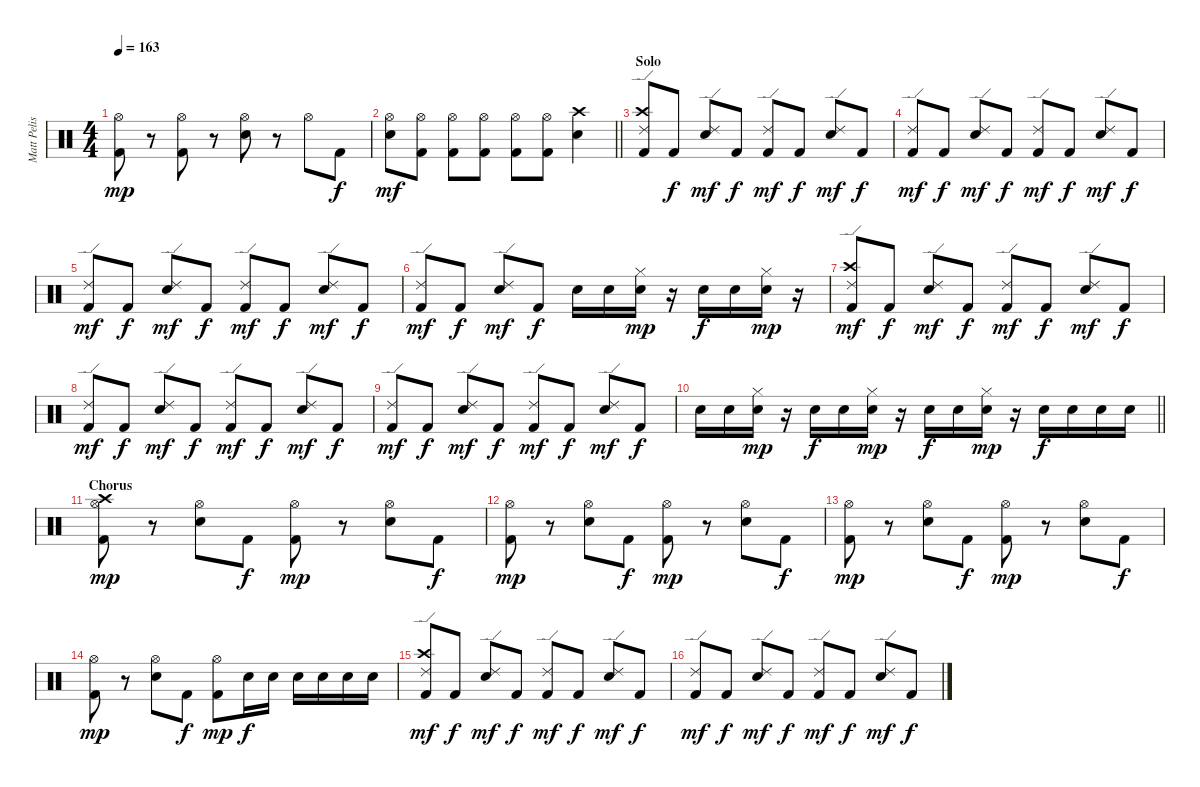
\track ("Matt Pelissier (Drums)" "Matt Pelis") {instrument percussion}
\staff {score}
\articulation defaults
\ts (4 4)
\tempo 163
\clef neutral
\ks c
("Hi-Hat (open)" "Kick (hit) 2").8{dy mp} r.8 ("Hi-Hat (open)" "Kick (hit) 2").8 r.8 ("Hi-Hat (open)" "Electric Snare (hit)").8 r.8 "Hi-Hat (open)".8 "Kick (hit) 2".8{dy f} |
\barLineRight lightlight
("Hi-Hat (open)" "Electric Snare (hit)").8{dy mf} ("Hi-Hat (open)" "Kick (hit) 2").8 ("Hi-Hat (open)" "Kick (hit) 2").8 ("Hi-Hat (open)" "Kick (hit) 2").8 ("Hi-Hat (open)" "Kick (hit) 2").8 ("Hi-Hat (open)" "Kick (hit) 2").8 ("Crash high (hit)" "Electric Snare (hit)").4 |
\section ("" "Solo")
("Crash high (hit)" "Ride (edge) 2" "Kick (hit) 2").8 "Kick (hit) 2".8{dy f} ("Ride (edge) 2" "Electric Snare (hit)").8{dy mf} "Kick (hit) 2".8{dy f} ("Ride (edge) 2" "Kick (hit) 2").8{dy mf} "Kick (hit) 2".8{dy f} ("Ride (edge) 2" "Electric Snare (hit)").8{dy mf} "Kick (hit) 2".8{dy f} |
("Ride (edge) 2" "Kick (hit) 2").8{dy mf} "Kick (hit) 2".8{dy f} ("Ride (edge) 2" "Electric Snare (hit)").8{dy mf} "Kick (hit) 2".8{dy f} ("Ride (edge) 2" "Kick (hit) 2").8{dy mf} "Kick (hit) 2".8{dy f} ("Ride (edge) 2" "Electric Snare (hit)").8{dy mf} "Kick (hit) 2".8{dy f} |
("Ride (edge) 2" "Kick (hit) 2").8{dy mf} "Kick (hit) 2".8{dy f} ("Ride (edge) 2" "Electric Snare (hit)").8{dy mf} "Kick (hit) 2".8{dy f} ("Ride (edge) 2" "Kick (hit) 2").8{dy mf} "Kick (hit) 2".8{dy f} ("Ride (edge) 2" "Electric Snare (hit)").8{dy mf} "Kick (hit) 2".8{dy f} |
("Ride (edge) 2" "Kick (hit) 2").8{dy mf} "Kick (hit) 2".8{dy f} ("Ride (edge) 2" "Electric Snare (hit)").8{dy mf} "Kick (hit) 2".8{dy f} "Electric Snare (hit)".16 "Electric Snare (hit)".16 ("Hi-Hat (closed)" "Electric Snare (hit)").16{dy mp} r.16 "Electric Snare (hit)".16{dy f} "Electric Snare (hit)".16 ("Hi-Hat (closed)" "Electric Snare (hit)").16{dy mp} r.16 |
("Crash high (hit)" "Ride (edge) 2" "Kick (hit) 2").8{dy mf} "Kick (hit) 2".8{dy f} ("Ride (edge) 2" "Electric Snare (hit)").8{dy mf} "Kick (hit) 2".8{dy f} ("Ride (edge) 2" "Kick (hit) 2").8{dy mf} "Kick (hit) 2".8{dy f} ("Ride (edge) 2" "Electric Snare (hit)").8{dy mf} "Kick (hit) 2".8{dy f} |
("Ride (edge) 2" "Kick (hit) 2").8{dy mf} "Kick (hit) 2".8{dy f} ("Ride (edge) 2" "Electric Snare (hit)").8{dy mf} "Kick (hit) 2".8{dy f} ("Ride (edge) 2" "Kick (hit) 2").8{dy mf} "Kick (hit) 2".8{dy f} ("Ride (edge) 2" "Electric Snare (hit)").8{dy mf} "Kick (hit) 2".8{dy f} |
("Ride (edge) 2" "Kick (hit) 2").8{dy mf} "Kick (hit) 2".8{dy f} ("Ride (edge) 2" "Electric Snare (hit)").8{dy mf} "Kick (hit) 2".8{dy f} ("Ride (edge) 2" "Kick (hit) 2").8{dy mf} "Kick (hit) 2".8{dy f} ("Ride (edge) 2" "Electric Snare (hit)").8{dy mf} "Kick (hit) 2".8{dy f} |
\barLineRight lightlight "Electric Snare (hit)".16 "Electric Snare (hit)".16
("Hi-Hat (closed)" "Electric Snare (hit)").16{dy mp} r.16 "Electric Snare (hit)".16{dy f} "Electric Snare (hit)".16 ("Hi-Hat (closed)" "Electric Snare (hit)").16{dy mp} r.16 "Electric Snare (hit)".16{dy f} "Electric Snare (hit)".16 ("Hi-Hat (closed)" "Electric Snare (hit)").16{dy mp} r.16 "Electric Snare (hit)".16{dy f} "Electric Snare (hit)".16 "Electric Snare (hit)".16 "Electric Snare (hit)".16 |
\section ("" "Chorus")
("Crash high (hit)" "Hi-Hat (open)" "Kick (hit) 2").8{dy mp} r.8 ("Hi-Hat (open)" "Electric Snare (hit)").8 "Kick (hit) 2".8{dy f} ("Hi-Hat (open)" "Kick (hit) 2").8{dy mp} r.8 ("Hi-Hat (open)" "Electric Snare (hit)").8 "Kick (hit) 2".8{dy f} |
("Hi-Hat (open)" "Kick (hit) 2").8{dy mp} r.8 ("Hi-Hat (open)" "Electric Snare (hit)").8 "Kick (hit) 2".8{dy f} ("Hi-Hat (open)" "Kick (hit) 2").8{dy mp} r.8 ("Hi-Hat (open)" "Electric Snare (hit)").8 "Kick (hit) 2".8{dy f} |
("Hi-Hat (open)" "Kick (hit) 2").8{dy mp} r.8 ("Hi-Hat (open)" "Electric Snare (hit)").8 "Kick (hit) 2".8{dy f} ("Hi-Hat (open)" "Kick (hit) 2").8{dy mp} r.8 ("Hi-Hat (open)" "Electric Snare (hit)").8 "Kick (hit) 2".8{dy f} |
("Hi-Hat (open)" "Kick (hit) 2").8{dy mp} r.8 ("Hi-Hat (open)" "Electric Snare (hit)").8 "Kick (hit) 2".8{dy f} ("Hi-Hat (open)" "Kick (hit) 2").8{dy mp} "Electric Snare (hit)".16{dy f} "Electric Snare (hit)".16 "Electric Snare (hit)".16 "Electric Snare (hit)".16 "Electric Snare (hit)".16 "Electric Snare (hit)".16 |
("Crash high (hit)" "Ride (edge) 2" "Kick (hit) 2").8{dy mf} "Kick (hit) 2".8{dy f} ("Ride (edge) 2" "Electric Snare (hit)").8{dy mf} "Kick (hit) 2".8{dy f} ("Ride (edge) 2" "Kick (hit) 2").8{dy mf} "Kick (hit) 2".8{dy f} ("Ride (edge) 2" "Electric Snare (hit)").8{dy mf} "Kick (hit) 2".8{dy f} |
("Ride (edge) 2" "Kick (hit) 2").8{dy mf} "Kick (hit) 2".8{dy f} ("Ride (edge) 2" "Electric Snare (hit)").8{dy mf} "Kick (hit) 2".8{dy f} ("Ride (edge) 2" "Kick (hit) 2").8{dy mf} "Kick (hit) 2".8{dy f} ("Ride (edge) 2" "Electric Snare (hit)").8{dy mf} "Kick (hit) 2".8{dy f}
